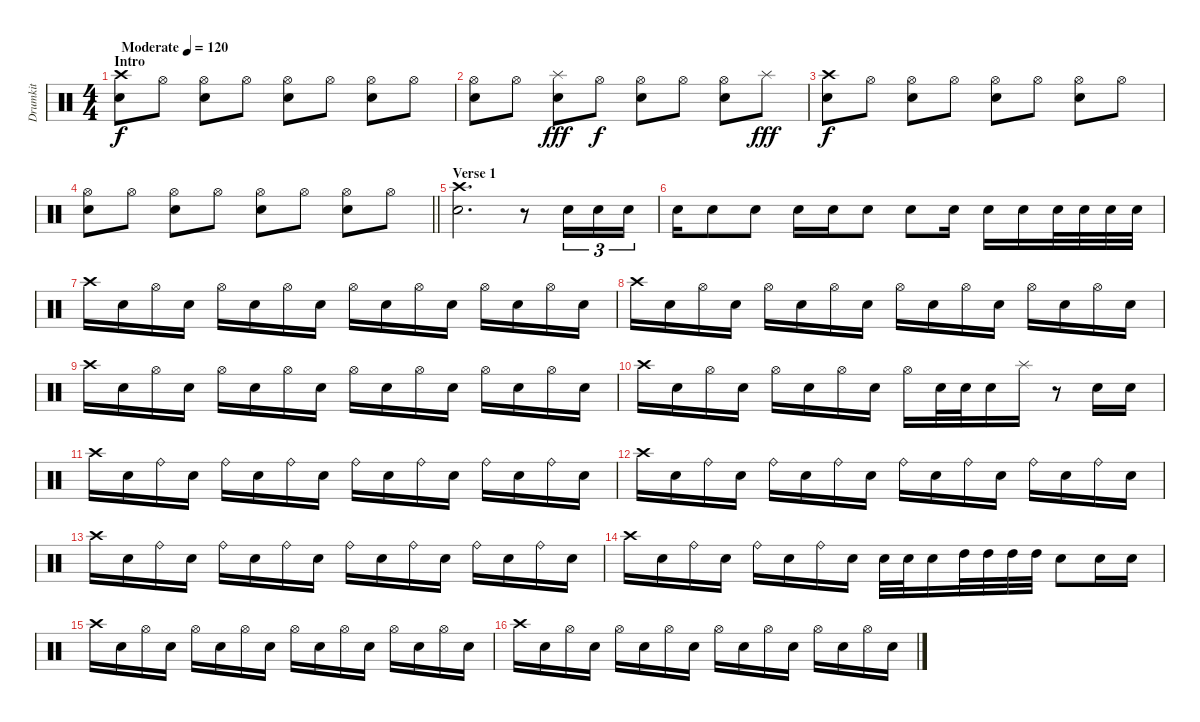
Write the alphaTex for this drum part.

\track ("Drumkit" "Drumkit") {instrument percussion}
\staff {score}
\articulation defaults
\ts (4 4)
\section ("" "Intro")
\tempo (120 "Moderate")
\clef neutral
\ks c
("Crash high (hit)" "Electric Snare (hit)").8{dy f} "Hi-Hat (open)".8 ("Hi-Hat (open)" "Electric Snare (hit)").8 "Hi-Hat (open)".8 ("Hi-Hat (open)" "Electric Snare (hit)").8 "Hi-Hat (open)".8 ("Hi-Hat (open)" "Electric Snare (hit)").8 "Hi-Hat (open)".8 |
("Hi-Hat (open)" "Electric Snare (hit)").8 "Hi-Hat (open)".8 ("Splash (hit)" "Electric Snare (hit)").8{dy fff} "Hi-Hat (open)".8{dy f} ("Hi-Hat (open)" "Electric Snare (hit)").8 "Hi-Hat (open)".8 ("Hi-Hat (open)" "Electric Snare (hit)").8 "Splash (hit)".8{dy fff} |
("Crash high (hit)" "Electric Snare (hit)").8{dy f} "Hi-Hat (open)".8 ("Hi-Hat (open)" "Electric Snare (hit)").8 "Hi-Hat (open)".8 ("Hi-Hat (open)" "Electric Snare (hit)").8 "Hi-Hat (open)".8 ("Hi-Hat (open)" "Electric Snare (hit)").8 "Hi-Hat (open)".8 |
\barLineRight lightlight
("Hi-Hat (open)" "Electric Snare (hit)").8 "Hi-Hat (open)".8 ("Hi-Hat (open)" "Electric Snare (hit)").8 "Hi-Hat (open)".8 ("Hi-Hat (open)" "Electric Snare (hit)").8 "Hi-Hat (open)".8 ("Hi-Hat (open)" "Electric Snare (hit)").8 "Hi-Hat (open)".8 |
\section ("" "Verse 1")
("Crash high (hit)" "Electric Snare (hit)").2{d} r.8 "Electric Snare (hit)".16{tu (3 2)} "Electric Snare (hit)".16{tu (3 2)} "Electric Snare (hit)".16{tu (3 2)} |
"Electric Snare (hit)".16 "Electric Snare (hit)".8 "Electric Snare (hit)".8 "Electric Snare (hit)".16 "Electric Snare (hit)".16 "Electric Snare (hit)".8 "Electric Snare (hit)".8 "Electric Snare (hit)".16 "Electric Snare (hit)".16 "Electric Snare (hit)".16 "Electric Snare (hit)".32 "Electric Snare (hit)".32 "Electric Snare (hit)".32 "Electric Snare (hit)".32 |
"Crash high (hit)".16 "Electric Snare (hit)".16 "Hi-Hat (open)".16 "Electric Snare (hit)".16 "Hi-Hat (open)".16 "Electric Snare (hit)".16 "Hi-Hat (open)".16 "Electric Snare (hit)".16 "Hi-Hat (open)".16 "Electric Snare (hit)".16 "Hi-Hat (open)".16 "Electric Snare (hit)".16 "Hi-Hat (open)".16 "Electric Snare (hit)".16 "Hi-Hat (open)".16 "Electric Snare (hit)".16 |
"Crash high (hit)".16 "Electric Snare (hit)".16 "Hi-Hat (open)".16 "Electric Snare (hit)".16 "Hi-Hat (open)".16 "Electric Snare (hit)".16 "Hi-Hat (open)".16 "Electric Snare (hit)".16 "Hi-Hat (open)".16 "Electric Snare (hit)".16 "Hi-Hat (open)".16 "Electric Snare (hit)".16 "Hi-Hat (open)".16 "Electric Snare (hit)".16 "Hi-Hat (open)".16 "Electric Snare (hit)".16 |
"Crash high (hit)".16 "Electric Snare (hit)".16 "Hi-Hat (open)".16 "Electric Snare (hit)".16 "Hi-Hat (open)".16 "Electric Snare (hit)".16 "Hi-Hat (open)".16 "Electric Snare (hit)".16 "Hi-Hat (open)".16 "Electric Snare (hit)".16 "Hi-Hat (open)".16 "Electric Snare (hit)".16 "Hi-Hat (open)".16 "Electric Snare (hit)".16 "Hi-Hat (open)".16 "Electric Snare (hit)".16 |
"Crash high (hit)".16 "Electric Snare (hit)".16 "Hi-Hat (open)".16 "Electric Snare (hit)".16 "Hi-Hat (open)".16 "Electric Snare (hit)".16 "Hi-Hat (open)".16 "Electric Snare (hit)".16 "Hi-Hat (open)".16 "Electric Snare (hit)".32 "Electric Snare (hit)".32 "Electric Snare (hit)".16 "Splash (hit)".16 r.8 "Electric Snare (hit)".16 "Electric Snare (hit)".16 |
"Crash high (hit)".16 "Electric Snare (hit)".16 "Ride (bell)".16 "Electric Snare (hit)".16 "Ride (bell)".16 "Electric Snare (hit)".16 "Ride (bell)".16 "Electric Snare (hit)".16 "Ride (bell)".16 "Electric Snare (hit)".16 "Ride (bell)".16 "Electric Snare (hit)".16 "Ride (bell)".16 "Electric Snare (hit)".16 "Ride (bell)".16 "Electric Snare (hit)".16 |
"Crash high (hit)".16 "Electric Snare (hit)".16 "Ride (bell)".16 "Electric Snare (hit)".16 "Ride (bell)".16 "Electric Snare (hit)".16 "Ride (bell)".16 "Electric Snare (hit)".16 "Ride (bell)".16 "Electric Snare (hit)".16 "Ride (bell)".16 "Electric Snare (hit)".16 "Ride (bell)".16 "Electric Snare (hit)".16 "Ride (bell)".16 "Electric Snare (hit)".16 |
"Crash high (hit)".16 "Electric Snare (hit)".16 "Ride (bell)".16 "Electric Snare (hit)".16 "Ride (bell)".16 "Electric Snare (hit)".16 "Ride (bell)".16 "Electric Snare (hit)".16 "Ride (bell)".16 "Electric Snare (hit)".16 "Ride (bell)".16 "Electric Snare (hit)".16 "Ride (bell)".16 "Electric Snare (hit)".16 "Ride (bell)".16 "Electric Snare (hit)".16 |
"Crash high (hit)".16 "Electric Snare (hit)".16 "Ride (bell)".16 "Electric Snare (hit)".16 "Ride (bell)".16 "Electric Snare (hit)".16 "Ride (bell)".16 "Electric Snare (hit)".16 "Electric Snare (hit)".32 "Electric Snare (hit)".32 "Electric Snare (hit)".16 "High Tom (hit)".32 "High Tom (hit)".32 "High Tom (hit)".32 "High Tom (hit)".32 "Electric Snare (hit)".8 "Electric Snare (hit)".16 "Electric Snare (hit)".16 |
"Crash high (hit)".16 "Electric Snare (hit)".16 "Hi-Hat (open)".16 "Electric Snare (hit)".16 "Hi-Hat (open)".16 "Electric Snare (hit)".16 "Hi-Hat (open)".16 "Electric Snare (hit)".16 "Hi-Hat (open)".16 "Electric Snare (hit)".16 "Hi-Hat (open)".16 "Electric Snare (hit)".16 "Hi-Hat (open)".16 "Electric Snare (hit)".16 "Hi-Hat (open)".16 "Electric Snare (hit)".16 |
"Crash high (hit)".16 "Electric Snare (hit)".16 "Hi-Hat (open)".16 "Electric Snare (hit)".16 "Hi-Hat (open)".16 "Electric Snare (hit)".16 "Hi-Hat (open)".16 "Electric Snare (hit)".16 "Hi-Hat (open)".16 "Electric Snare (hit)".16 "Hi-Hat (open)".16 "Electric Snare (hit)".16 "Hi-Hat (open)".16 "Electric Snare (hit)".16 "Hi-Hat (open)".16 "Electric Snare (hit)".16
